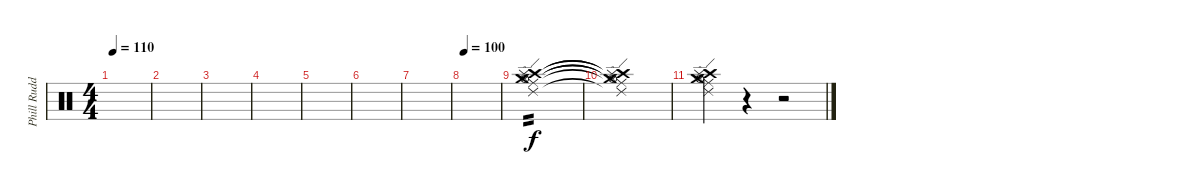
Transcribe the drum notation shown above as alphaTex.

\track ("Phill Rudd (Drums)" "Phill Rudd") {instrument percussion}
\staff {score}
\articulation defaults
\ts (4 4)
\tempo 110
\clef neutral
\ks c
|
|
|
|
|
|
|
\tempo 100
|
("Crash high (hit)" "Ride (middle)" "Splash (hit)" "Crash medium (hit)" "Ride (edge) 2" "Hi-Hat (open)").1{tp 2} |
("Crash high (hit)"{t} "Ride (middle)"{t} "Splash (hit)"{t} "Crash medium (hit)"{t} "Ride (edge) 2"{t} "Hi-Hat (open)"{t}).1 |
("Crash high (hit)" "Ride (middle)" "Splash (hit)" "Crash medium (hit)" "Ride (edge) 2" "Hi-Hat (open)").4 r.4 r.2
